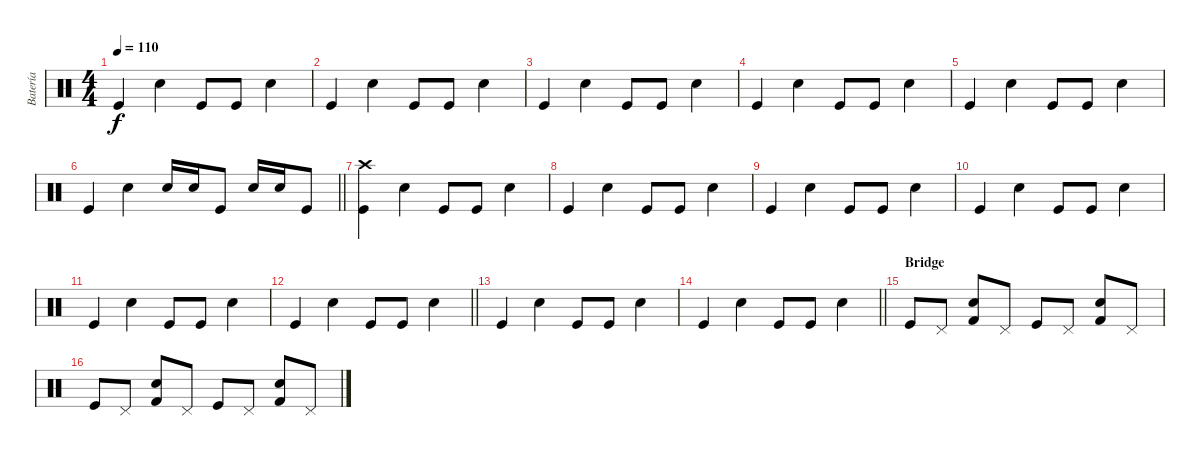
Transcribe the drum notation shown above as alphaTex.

\track ("Batería" "Batería") {instrument percussion}
\staff {score}
\articulation defaults
\ts (4 4)
\tempo 110
\clef neutral
\ks c "Kick (hit)".4{dy f} "Electric Snare (hit)".4 "Kick (hit)".8 "Kick (hit)".8 "Electric Snare (hit)".4
|
"Kick (hit)".4 "Electric Snare (hit)".4 "Kick (hit)".8 "Kick (hit)".8 "Electric Snare (hit)".4 |
"Kick (hit)".4 "Electric Snare (hit)".4 "Kick (hit)".8 "Kick (hit)".8 "Electric Snare (hit)".4 |
"Kick (hit)".4 "Electric Snare (hit)".4 "Kick (hit)".8 "Kick (hit)".8 "Electric Snare (hit)".4 |
"Kick (hit)".4 "Electric Snare (hit)".4 "Kick (hit)".8 "Kick (hit)".8 "Electric Snare (hit)".4 |
\barLineRight lightlight "Kick (hit)".4 "Electric Snare (hit)".4 "Snare (hit) 2".16 "Snare (hit) 2".16 "Kick (hit)".8 "Snare (hit) 2".16 "Snare (hit) 2".16 "Kick (hit)".8
|
\section ("" "")
("Kick (hit)" "Crash high (hit)").4 "Electric Snare (hit)".4 "Kick (hit)".8 "Kick (hit)".8 "Electric Snare (hit)".4 |
"Kick (hit)".4 "Electric Snare (hit)".4 "Kick (hit)".8 "Kick (hit)".8 "Electric Snare (hit)".4 |
"Kick (hit)".4 "Electric Snare (hit)".4 "Kick (hit)".8 "Kick (hit)".8 "Electric Snare (hit)".4 |
"Kick (hit)".4 "Electric Snare (hit)".4 "Kick (hit)".8 "Kick (hit)".8 "Electric Snare (hit)".4 |
"Kick (hit)".4 "Electric Snare (hit)".4 "Kick (hit)".8 "Kick (hit)".8 "Electric Snare (hit)".4 |
\barLineRight lightlight "Kick (hit)".4 "Electric Snare (hit)".4 "Kick (hit)".8 "Kick (hit)".8 "Electric Snare (hit)".4
|
"Kick (hit)".4 "Electric Snare (hit)".4 "Kick (hit)".8 "Kick (hit)".8 "Electric Snare (hit)".4 |
\barLineRight lightlight "Kick (hit)".4 "Electric Snare (hit)".4 "Kick (hit)".8 "Kick (hit)".8 "Electric Snare (hit)".4
|
\section ("" "Bridge")
"Kick (hit)".8 "Pedal Hi-Hat (hit)".8 ("Kick (hit) 2" "Hand Clap (hit)").8 "Pedal Hi-Hat (hit)".8 "Kick (hit)".8 "Pedal Hi-Hat (hit)".8 ("Kick (hit) 2" "Hand Clap (hit)").8 "Pedal Hi-Hat (hit)".8 |
"Kick (hit)".8 "Pedal Hi-Hat (hit)".8 ("Kick (hit) 2" "Hand Clap (hit)").8 "Pedal Hi-Hat (hit)".8 "Kick (hit)".8 "Pedal Hi-Hat (hit)".8 ("Kick (hit) 2" "Hand Clap (hit)").8 "Pedal Hi-Hat (hit)".8
